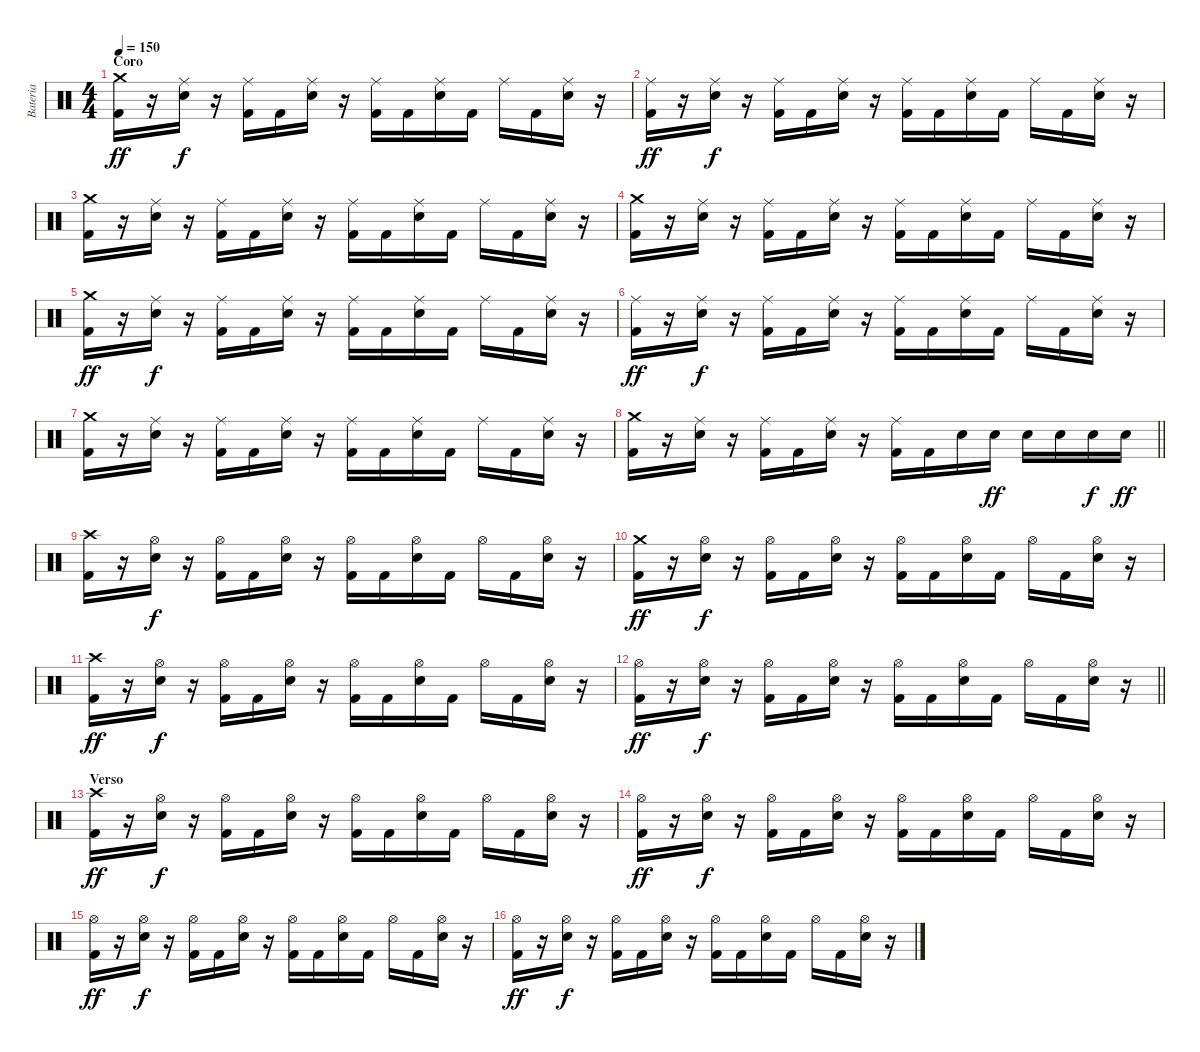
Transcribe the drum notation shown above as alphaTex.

\track ("Bateria" "Bateria") {instrument percussion}
\staff {score}
\articulation defaults
\ts (4 4)
\section ("" "Coro")
\tempo 150
\clef neutral
\ks c
("Crash medium (hit)" "Kick (hit) 2").16{dy ff} r.16 ("Ride (middle)" "Electric Snare (hit)").16{dy f} r.16 ("Ride (middle)" "Kick (hit) 2").16 "Kick (hit) 2".16 ("Ride (middle)" "Electric Snare (hit)").16 r.16 ("Ride (middle)" "Kick (hit) 2").16 "Kick (hit) 2".16 ("Ride (middle)" "Electric Snare (hit)").16 "Kick (hit) 2".16 "Ride (middle)".16 "Kick (hit) 2".16 ("Ride (middle)" "Electric Snare (hit)").16 r.16 |
("Ride (middle)" "Kick (hit) 2").16{dy ff} r.16 ("Ride (middle)" "Electric Snare (hit)").16{dy f} r.16 ("Ride (middle)" "Kick (hit) 2").16 "Kick (hit) 2".16 ("Ride (middle)" "Electric Snare (hit)").16 r.16 ("Ride (middle)" "Kick (hit) 2").16 "Kick (hit) 2".16 ("Ride (middle)" "Electric Snare (hit)").16 "Kick (hit) 2".16 "Ride (middle)".16 "Kick (hit) 2".16 ("Ride (middle)" "Electric Snare (hit)").16 r.16 |
("Crash medium (hit)" "Kick (hit) 2").16 r.16 ("Ride (middle)" "Electric Snare (hit)").16 r.16 ("Ride (middle)" "Kick (hit) 2").16 "Kick (hit) 2".16 ("Ride (middle)" "Electric Snare (hit)").16 r.16 ("Ride (middle)" "Kick (hit) 2").16 "Kick (hit) 2".16 ("Ride (middle)" "Electric Snare (hit)").16 "Kick (hit) 2".16 "Ride (middle)".16 "Kick (hit) 2".16 ("Ride (middle)" "Electric Snare (hit)").16 r.16 |
("Crash medium (hit)" "Kick (hit) 2").16 r.16 ("Ride (middle)" "Electric Snare (hit)").16 r.16 ("Ride (middle)" "Kick (hit) 2").16 "Kick (hit) 2".16 ("Ride (middle)" "Electric Snare (hit)").16 r.16 ("Ride (middle)" "Kick (hit) 2").16 "Kick (hit) 2".16 ("Ride (middle)" "Electric Snare (hit)").16 "Kick (hit) 2".16 "Ride (middle)".16 "Kick (hit) 2".16 ("Ride (middle)" "Electric Snare (hit)").16 r.16 |
("Crash medium (hit)" "Kick (hit) 2").16{dy ff} r.16 ("Ride (middle)" "Electric Snare (hit)").16{dy f} r.16 ("Ride (middle)" "Kick (hit) 2").16 "Kick (hit) 2".16 ("Ride (middle)" "Electric Snare (hit)").16 r.16 ("Ride (middle)" "Kick (hit) 2").16 "Kick (hit) 2".16 ("Ride (middle)" "Electric Snare (hit)").16 "Kick (hit) 2".16 "Ride (middle)".16 "Kick (hit) 2".16 ("Ride (middle)" "Electric Snare (hit)").16 r.16 |
("Ride (middle)" "Kick (hit) 2").16{dy ff} r.16 ("Ride (middle)" "Electric Snare (hit)").16{dy f} r.16 ("Ride (middle)" "Kick (hit) 2").16 "Kick (hit) 2".16 ("Ride (middle)" "Electric Snare (hit)").16 r.16 ("Ride (middle)" "Kick (hit) 2").16 "Kick (hit) 2".16 ("Ride (middle)" "Electric Snare (hit)").16 "Kick (hit) 2".16 "Ride (middle)".16 "Kick (hit) 2".16 ("Ride (middle)" "Electric Snare (hit)").16 r.16 |
("Crash medium (hit)" "Kick (hit) 2").16 r.16 ("Ride (middle)" "Electric Snare (hit)").16 r.16 ("Ride (middle)" "Kick (hit) 2").16 "Kick (hit) 2".16 ("Ride (middle)" "Electric Snare (hit)").16 r.16 ("Ride (middle)" "Kick (hit) 2").16 "Kick (hit) 2".16 ("Ride (middle)" "Electric Snare (hit)").16 "Kick (hit) 2".16 "Ride (middle)".16 "Kick (hit) 2".16 ("Ride (middle)" "Electric Snare (hit)").16 r.16 |
\barLineRight lightlight
("Crash medium (hit)" "Kick (hit) 2").16 r.16 ("Ride (middle)" "Electric Snare (hit)").16 r.16 ("Ride (middle)" "Kick (hit) 2").16 "Kick (hit) 2".16 ("Ride (middle)" "Electric Snare (hit)").16 r.16 ("Ride (middle)" "Kick (hit) 2").16 "Kick (hit) 2".16 "Electric Snare (hit)".16 "Electric Snare (hit)".16{dy ff} "Electric Snare (hit)".16 "Electric Snare (hit)".16 "Electric Snare (hit)".16{dy f} "Electric Snare (hit)".16{dy ff} |
("Crash high (hit)" "Kick (hit) 2").16 r.16 ("Hi-Hat (open)" "Electric Snare (hit)").16{dy f} r.16 ("Hi-Hat (open)" "Kick (hit) 2").16 "Kick (hit) 2".16 ("Hi-Hat (open)" "Electric Snare (hit)").16 r.16 ("Hi-Hat (open)" "Kick (hit) 2").16 "Kick (hit) 2".16 ("Hi-Hat (open)" "Electric Snare (hit)").16 "Kick (hit) 2".16 "Hi-Hat (open)".16 "Kick (hit) 2".16 ("Hi-Hat (open)" "Electric Snare (hit)").16 r.16 |
("Crash medium (hit)" "Kick (hit) 2").16{dy ff} r.16 ("Hi-Hat (open)" "Electric Snare (hit)").16{dy f} r.16 ("Hi-Hat (open)" "Kick (hit) 2").16 "Kick (hit) 2".16 ("Hi-Hat (open)" "Electric Snare (hit)").16 r.16 ("Hi-Hat (open)" "Kick (hit) 2").16 "Kick (hit) 2".16 ("Hi-Hat (open)" "Electric Snare (hit)").16 "Kick (hit) 2".16 "Hi-Hat (open)".16 "Kick (hit) 2".16 ("Hi-Hat (open)" "Electric Snare (hit)").16 r.16 |
("Crash high (hit)" "Kick (hit) 2").16{dy ff} r.16 ("Hi-Hat (open)" "Electric Snare (hit)").16{dy f} r.16 ("Hi-Hat (open)" "Kick (hit) 2").16 "Kick (hit) 2".16 ("Hi-Hat (open)" "Electric Snare (hit)").16 r.16 ("Hi-Hat (open)" "Kick (hit) 2").16 "Kick (hit) 2".16 ("Hi-Hat (open)" "Electric Snare (hit)").16 "Kick (hit) 2".16 "Hi-Hat (open)".16 "Kick (hit) 2".16 ("Hi-Hat (open)" "Electric Snare (hit)").16 r.16 |
\barLineRight lightlight
("Hi-Hat (open)" "Kick (hit) 2").16{dy ff} r.16 ("Hi-Hat (open)" "Electric Snare (hit)").16{dy f} r.16 ("Hi-Hat (open)" "Kick (hit) 2").16 "Kick (hit) 2".16 ("Hi-Hat (open)" "Electric Snare (hit)").16 r.16 ("Hi-Hat (open)" "Kick (hit) 2").16 "Kick (hit) 2".16 ("Hi-Hat (open)" "Electric Snare (hit)").16 "Kick (hit) 2".16 "Hi-Hat (open)".16 "Kick (hit) 2".16 ("Hi-Hat (open)" "Electric Snare (hit)").16 r.16 |
\section ("" "Verso")
("Crash high (hit)" "Kick (hit) 2").16{dy ff} r.16 ("Hi-Hat (open)" "Electric Snare (hit)").16{dy f} r.16 ("Hi-Hat (open)" "Kick (hit) 2").16 "Kick (hit) 2".16 ("Hi-Hat (open)" "Electric Snare (hit)").16 r.16 ("Hi-Hat (open)" "Kick (hit) 2").16 "Kick (hit) 2".16 ("Hi-Hat (open)" "Electric Snare (hit)").16 "Kick (hit) 2".16 "Hi-Hat (open)".16 "Kick (hit) 2".16 ("Hi-Hat (open)" "Electric Snare (hit)").16 r.16 |
("Hi-Hat (open)" "Kick (hit) 2").16{dy ff} r.16 ("Hi-Hat (open)" "Electric Snare (hit)").16{dy f} r.16 ("Hi-Hat (open)" "Kick (hit) 2").16 "Kick (hit) 2".16 ("Hi-Hat (open)" "Electric Snare (hit)").16 r.16 ("Hi-Hat (open)" "Kick (hit) 2").16 "Kick (hit) 2".16 ("Hi-Hat (open)" "Electric Snare (hit)").16 "Kick (hit) 2".16 "Hi-Hat (open)".16 "Kick (hit) 2".16 ("Hi-Hat (open)" "Electric Snare (hit)").16 r.16 |
("Hi-Hat (open)" "Kick (hit) 2").16{dy ff} r.16 ("Hi-Hat (open)" "Electric Snare (hit)").16{dy f} r.16 ("Hi-Hat (open)" "Kick (hit) 2").16 "Kick (hit) 2".16 ("Hi-Hat (open)" "Electric Snare (hit)").16 r.16 ("Hi-Hat (open)" "Kick (hit) 2").16 "Kick (hit) 2".16 ("Hi-Hat (open)" "Electric Snare (hit)").16 "Kick (hit) 2".16 "Hi-Hat (open)".16 "Kick (hit) 2".16 ("Hi-Hat (open)" "Electric Snare (hit)").16 r.16 |
("Hi-Hat (open)" "Kick (hit) 2").16{dy ff} r.16 ("Hi-Hat (open)" "Electric Snare (hit)").16{dy f} r.16 ("Hi-Hat (open)" "Kick (hit) 2").16 "Kick (hit) 2".16 ("Hi-Hat (open)" "Electric Snare (hit)").16 r.16 ("Hi-Hat (open)" "Kick (hit) 2").16 "Kick (hit) 2".16 ("Hi-Hat (open)" "Electric Snare (hit)").16 "Kick (hit) 2".16 "Hi-Hat (open)".16 "Kick (hit) 2".16 ("Hi-Hat (open)" "Electric Snare (hit)").16 r.16
